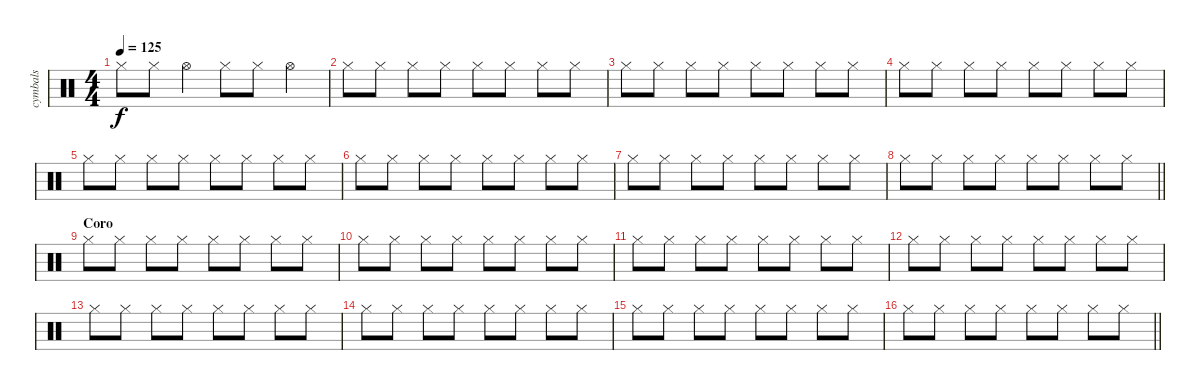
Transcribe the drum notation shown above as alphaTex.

\track ("cymbals" "cymbals") {instrument percussion}
\staff {score}
\articulation defaults
\ts (4 4)
\tempo 125
\clef neutral
\ks c "Hi-Hat (closed)".8{dy f} "Hi-Hat (closed)".8 "Hi-Hat (open)".4 "Hi-Hat (closed)".8 "Hi-Hat (closed)".8 "Hi-Hat (open)".4
|
"Hi-Hat (closed)".8 "Hi-Hat (closed)".8 "Hi-Hat (closed)".8 "Hi-Hat (closed)".8 "Hi-Hat (closed)".8 "Hi-Hat (closed)".8 "Hi-Hat (closed)".8 "Hi-Hat (closed)".8 |
"Hi-Hat (closed)".8 "Hi-Hat (closed)".8 "Hi-Hat (closed)".8 "Hi-Hat (closed)".8 "Hi-Hat (closed)".8 "Hi-Hat (closed)".8 "Hi-Hat (closed)".8 "Hi-Hat (closed)".8 |
"Hi-Hat (closed)".8 "Hi-Hat (closed)".8 "Hi-Hat (closed)".8 "Hi-Hat (closed)".8 "Hi-Hat (closed)".8 "Hi-Hat (closed)".8 "Hi-Hat (closed)".8 "Hi-Hat (closed)".8 |
"Hi-Hat (closed)".8 "Hi-Hat (closed)".8 "Hi-Hat (closed)".8 "Hi-Hat (closed)".8 "Hi-Hat (closed)".8 "Hi-Hat (closed)".8 "Hi-Hat (closed)".8 "Hi-Hat (closed)".8 |
"Hi-Hat (closed)".8 "Hi-Hat (closed)".8 "Hi-Hat (closed)".8 "Hi-Hat (closed)".8 "Hi-Hat (closed)".8 "Hi-Hat (closed)".8 "Hi-Hat (closed)".8 "Hi-Hat (closed)".8 |
"Hi-Hat (closed)".8 "Hi-Hat (closed)".8 "Hi-Hat (closed)".8 "Hi-Hat (closed)".8 "Hi-Hat (closed)".8 "Hi-Hat (closed)".8 "Hi-Hat (closed)".8 "Hi-Hat (closed)".8 |
\barLineRight lightlight "Hi-Hat (closed)".8 "Hi-Hat (closed)".8 "Hi-Hat (closed)".8 "Hi-Hat (closed)".8 "Hi-Hat (closed)".8 "Hi-Hat (closed)".8 "Hi-Hat (closed)".8 "Hi-Hat (closed)".8
|
\section ("" "Coro")
"Hi-Hat (closed)".8 "Hi-Hat (closed)".8 "Hi-Hat (closed)".8 "Hi-Hat (closed)".8 "Hi-Hat (closed)".8 "Hi-Hat (closed)".8 "Hi-Hat (closed)".8 "Hi-Hat (closed)".8 |
"Hi-Hat (closed)".8 "Hi-Hat (closed)".8 "Hi-Hat (closed)".8 "Hi-Hat (closed)".8 "Hi-Hat (closed)".8 "Hi-Hat (closed)".8 "Hi-Hat (closed)".8 "Hi-Hat (closed)".8 |
"Hi-Hat (closed)".8 "Hi-Hat (closed)".8 "Hi-Hat (closed)".8 "Hi-Hat (closed)".8 "Hi-Hat (closed)".8 "Hi-Hat (closed)".8 "Hi-Hat (closed)".8 "Hi-Hat (closed)".8 |
"Hi-Hat (closed)".8 "Hi-Hat (closed)".8 "Hi-Hat (closed)".8 "Hi-Hat (closed)".8 "Hi-Hat (closed)".8 "Hi-Hat (closed)".8 "Hi-Hat (closed)".8 "Hi-Hat (closed)".8 |
"Hi-Hat (closed)".8 "Hi-Hat (closed)".8 "Hi-Hat (closed)".8 "Hi-Hat (closed)".8 "Hi-Hat (closed)".8 "Hi-Hat (closed)".8 "Hi-Hat (closed)".8 "Hi-Hat (closed)".8 |
"Hi-Hat (closed)".8 "Hi-Hat (closed)".8 "Hi-Hat (closed)".8 "Hi-Hat (closed)".8 "Hi-Hat (closed)".8 "Hi-Hat (closed)".8 "Hi-Hat (closed)".8 "Hi-Hat (closed)".8 |
"Hi-Hat (closed)".8 "Hi-Hat (closed)".8 "Hi-Hat (closed)".8 "Hi-Hat (closed)".8 "Hi-Hat (closed)".8 "Hi-Hat (closed)".8 "Hi-Hat (closed)".8 "Hi-Hat (closed)".8 |
\barLineRight lightlight "Hi-Hat (closed)".8 "Hi-Hat (closed)".8 "Hi-Hat (closed)".8 "Hi-Hat (closed)".8 "Hi-Hat (closed)".8 "Hi-Hat (closed)".8 "Hi-Hat (closed)".8 "Hi-Hat (closed)".8
